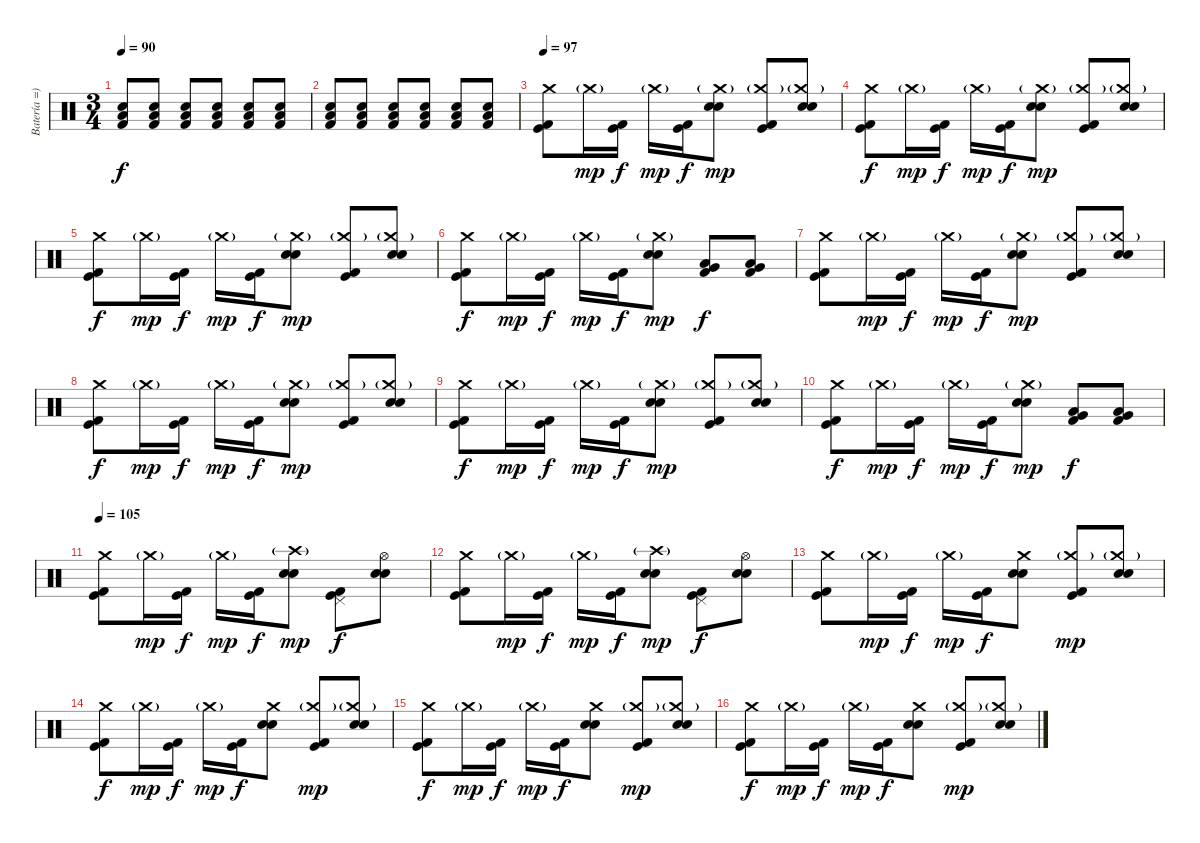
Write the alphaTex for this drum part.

\track ("Batería =)" "Batería =)") {instrument percussion}
\staff {score}
\articulation defaults
\ts (3 4)
\tempo 90
\clef neutral
\ks c
("Electric Snare (hit)" "Low Floor Tom (hit)" "Kick (hit) 2").8{dy f} ("Electric Snare (hit)" "Low Floor Tom (hit)" "Kick (hit) 2").8 ("Electric Snare (hit)" "Low Floor Tom (hit)" "Kick (hit) 2").8 ("Electric Snare (hit)" "Low Floor Tom (hit)" "Kick (hit) 2").8 ("Electric Snare (hit)" "Low Floor Tom (hit)" "Kick (hit) 2").8 ("Electric Snare (hit)" "Low Floor Tom (hit)" "Kick (hit) 2").8 |
("Electric Snare (hit)" "Low Floor Tom (hit)" "Kick (hit) 2").8 ("Electric Snare (hit)" "Low Floor Tom (hit)" "Kick (hit) 2").8 ("Electric Snare (hit)" "Low Floor Tom (hit)" "Kick (hit) 2").8 ("Electric Snare (hit)" "Low Floor Tom (hit)" "Kick (hit) 2").8 ("Electric Snare (hit)" "Low Floor Tom (hit)" "Kick (hit) 2").8 ("Electric Snare (hit)" "Low Floor Tom (hit)" "Kick (hit) 2").8 |
\tempo 97
("Crash medium (hit)" "Kick (hit)" "Kick (hit) 2").8 "Crash medium (hit)"{g}.16{dy mp} ("Kick (hit)" "Kick (hit) 2").16{dy f} "Crash medium (hit)"{g}.16{dy mp} ("Kick (hit)" "Kick (hit) 2").16{dy f} ("Crash medium (hit)"{g} "Snare (hit) 2" "Electric Snare (hit)").8{dy mp} ("Crash medium (hit)"{g} "Kick (hit)" "Kick (hit) 2").8 ("Crash medium (hit)"{g} "Snare (hit) 2" "Electric Snare (hit)").8 |
("Crash medium (hit)" "Kick (hit)" "Kick (hit) 2").8{dy f} "Crash medium (hit)"{g}.16{dy mp} ("Kick (hit)" "Kick (hit) 2").16{dy f} "Crash medium (hit)"{g}.16{dy mp} ("Kick (hit)" "Kick (hit) 2").16{dy f} ("Crash medium (hit)"{g} "Snare (hit) 2" "Electric Snare (hit)").8{dy mp} ("Crash medium (hit)"{g} "Kick (hit)" "Kick (hit) 2").8 ("Crash medium (hit)"{g} "Snare (hit) 2" "Electric Snare (hit)").8 |
("Crash medium (hit)" "Kick (hit)" "Kick (hit) 2").8{dy f} "Crash medium (hit)"{g}.16{dy mp} ("Kick (hit)" "Kick (hit) 2").16{dy f} "Crash medium (hit)"{g}.16{dy mp} ("Kick (hit)" "Kick (hit) 2").16{dy f} ("Crash medium (hit)"{g} "Snare (hit) 2" "Electric Snare (hit)").8{dy mp} ("Crash medium (hit)"{g} "Kick (hit)" "Kick (hit) 2").8 ("Crash medium (hit)"{g} "Snare (hit) 2" "Electric Snare (hit)").8 |
("Crash medium (hit)" "Kick (hit)" "Kick (hit) 2").8{dy f} "Crash medium (hit)"{g}.16{dy mp} ("Kick (hit)" "Kick (hit) 2").16{dy f} "Crash medium (hit)"{g}.16{dy mp} ("Kick (hit)" "Kick (hit) 2").16{dy f} ("Crash medium (hit)"{g} "Snare (hit) 2" "Electric Snare (hit)").8{dy mp} ("Low Floor Tom (hit)" "Very Low Tom (hit)" "Kick (hit) 2").8{dy f} ("Low Floor Tom (hit)" "Very Low Tom (hit)" "Kick (hit) 2").8 |
("Crash medium (hit)" "Kick (hit)" "Kick (hit) 2").8 "Crash medium (hit)"{g}.16{dy mp} ("Kick (hit)" "Kick (hit) 2").16{dy f} "Crash medium (hit)"{g}.16{dy mp} ("Kick (hit)" "Kick (hit) 2").16{dy f} ("Crash medium (hit)"{g} "Snare (hit) 2" "Electric Snare (hit)").8{dy mp} ("Crash medium (hit)"{g} "Kick (hit)" "Kick (hit) 2").8 ("Crash medium (hit)"{g} "Snare (hit) 2" "Electric Snare (hit)").8 |
("Crash medium (hit)" "Kick (hit)" "Kick (hit) 2").8{dy f} "Crash medium (hit)"{g}.16{dy mp} ("Kick (hit)" "Kick (hit) 2").16{dy f} "Crash medium (hit)"{g}.16{dy mp} ("Kick (hit)" "Kick (hit) 2").16{dy f} ("Crash medium (hit)"{g} "Snare (hit) 2" "Electric Snare (hit)").8{dy mp} ("Crash medium (hit)"{g} "Kick (hit)" "Kick (hit) 2").8 ("Crash medium (hit)"{g} "Snare (hit) 2" "Electric Snare (hit)").8 |
("Crash medium (hit)" "Kick (hit)" "Kick (hit) 2").8{dy f} "Crash medium (hit)"{g}.16{dy mp} ("Kick (hit)" "Kick (hit) 2").16{dy f} "Crash medium (hit)"{g}.16{dy mp} ("Kick (hit)" "Kick (hit) 2").16{dy f} ("Crash medium (hit)"{g} "Snare (hit) 2" "Electric Snare (hit)").8{dy mp} ("Crash medium (hit)"{g} "Kick (hit)" "Kick (hit) 2").8 ("Crash medium (hit)"{g} "Snare (hit) 2" "Electric Snare (hit)").8 |
("Crash medium (hit)" "Kick (hit)" "Kick (hit) 2").8{dy f} "Crash medium (hit)"{g}.16{dy mp} ("Kick (hit)" "Kick (hit) 2").16{dy f} "Crash medium (hit)"{g}.16{dy mp} ("Kick (hit)" "Kick (hit) 2").16{dy f} ("Crash medium (hit)"{g} "Snare (hit) 2" "Electric Snare (hit)").8{dy mp} ("Low Floor Tom (hit)" "Very Low Tom (hit)" "Kick (hit) 2").8{dy f} ("Low Floor Tom (hit)" "Very Low Tom (hit)" "Kick (hit) 2").8 |
\tempo 105
("Crash medium (hit)" "Kick (hit)" "Kick (hit) 2").8 "Crash medium (hit)"{g}.16{dy mp} ("Kick (hit)" "Kick (hit) 2").16{dy f} "Crash medium (hit)"{g}.16{dy mp} ("Kick (hit)" "Kick (hit) 2").16{dy f} ("Crash high (hit)"{g} "Snare (hit) 2" "Electric Snare (hit)").8{dy mp} ("Pedal Hi-Hat (hit)" "Kick (hit)" "Kick (hit) 2").8{dy f} ("Hi-Hat (open)" "Snare (hit) 2" "Electric Snare (hit)").8 |
("Crash medium (hit)" "Kick (hit)" "Kick (hit) 2").8 "Crash medium (hit)"{g}.16{dy mp} ("Kick (hit)" "Kick (hit) 2").16{dy f} "Crash medium (hit)"{g}.16{dy mp} ("Kick (hit)" "Kick (hit) 2").16{dy f} ("Crash high (hit)"{g} "Snare (hit) 2" "Electric Snare (hit)").8{dy mp} ("Pedal Hi-Hat (hit)" "Kick (hit)" "Kick (hit) 2").8{dy f} ("Hi-Hat (open)" "Snare (hit) 2" "Electric Snare (hit)").8 |
("Crash medium (hit)" "Kick (hit)" "Kick (hit) 2").8 "Crash medium (hit)"{g}.16{dy mp} ("Kick (hit)" "Kick (hit) 2").16{dy f} "Crash medium (hit)"{g}.16{dy mp} ("Kick (hit)" "Kick (hit) 2").16{dy f} ("Crash medium (hit)" "Snare (hit) 2" "Electric Snare (hit)").8 ("Crash medium (hit)"{g} "Kick (hit)" "Kick (hit) 2").8{dy mp} ("Crash medium (hit)"{g} "Snare (hit) 2" "Electric Snare (hit)").8 |
("Crash medium (hit)" "Kick (hit)" "Kick (hit) 2").8{dy f} "Crash medium (hit)"{g}.16{dy mp} ("Kick (hit)" "Kick (hit) 2").16{dy f} "Crash medium (hit)"{g}.16{dy mp} ("Kick (hit)" "Kick (hit) 2").16{dy f} ("Crash medium (hit)" "Snare (hit) 2" "Electric Snare (hit)").8 ("Crash medium (hit)"{g} "Kick (hit)" "Kick (hit) 2").8{dy mp} ("Crash medium (hit)"{g} "Snare (hit) 2" "Electric Snare (hit)").8 |
("Crash medium (hit)" "Kick (hit)" "Kick (hit) 2").8{dy f} "Crash medium (hit)"{g}.16{dy mp} ("Kick (hit)" "Kick (hit) 2").16{dy f} "Crash medium (hit)"{g}.16{dy mp} ("Kick (hit)" "Kick (hit) 2").16{dy f} ("Crash medium (hit)" "Snare (hit) 2" "Electric Snare (hit)").8 ("Crash medium (hit)"{g} "Kick (hit)" "Kick (hit) 2").8{dy mp} ("Crash medium (hit)"{g} "Snare (hit) 2" "Electric Snare (hit)").8 |
("Crash medium (hit)" "Kick (hit)" "Kick (hit) 2").8{dy f} "Crash medium (hit)"{g}.16{dy mp} ("Kick (hit)" "Kick (hit) 2").16{dy f} "Crash medium (hit)"{g}.16{dy mp} ("Kick (hit)" "Kick (hit) 2").16{dy f} ("Crash medium (hit)" "Snare (hit) 2" "Electric Snare (hit)").8 ("Crash medium (hit)"{g} "Kick (hit)" "Kick (hit) 2").8{dy mp} ("Crash medium (hit)"{g} "Snare (hit) 2" "Electric Snare (hit)").8
